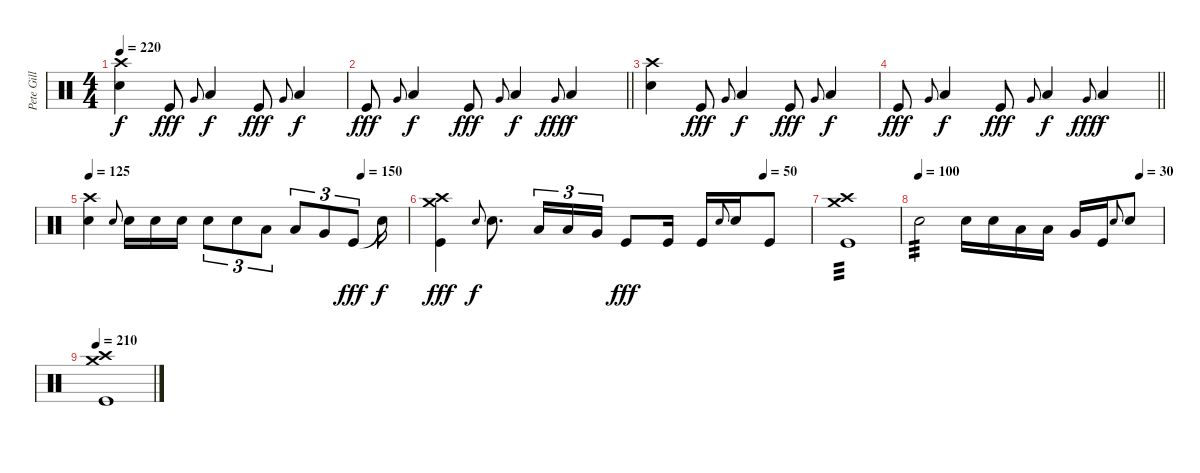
\track ("Pete Gill" "Pete Gill") {instrument percussion}
\staff {score}
\articulation defaults
\ts (4 4)
\tempo 220
\clef neutral
\ks c
("Crash high (hit)" "Electric Snare (hit)").4{dy f} "Kick (hit)".8{dy fff} "Very Low Tom (hit)".8{gr onbeat} "Low Tom (hit)".4{dy f} "Kick (hit)".8{dy fff} "Very Low Tom (hit)".8{gr onbeat} "Low Tom (hit)".4{dy f} |
\barLineRight lightlight "Kick (hit)".8{dy fff} "Very Low Tom (hit)".8{gr onbeat} "Low Tom (hit)".4{dy f} "Kick (hit)".8{dy fff} "Very Low Tom (hit)".8{gr onbeat} "Low Tom (hit)".4{dy f} "Very Low Tom (hit)".8{gr onbeat dy fff} "Low Tom (hit)".4{dy f}
|
("Crash high (hit)" "Electric Snare (hit)").4 "Kick (hit)".8{dy fff} "Very Low Tom (hit)".8{gr onbeat} "Low Tom (hit)".4{dy f} "Kick (hit)".8{dy fff} "Very Low Tom (hit)".8{gr onbeat} "Low Tom (hit)".4{dy f} |
\barLineRight lightlight "Kick (hit)".8{dy fff} "Very Low Tom (hit)".8{gr onbeat} "Low Tom (hit)".4{dy f} "Kick (hit)".8{dy fff} "Very Low Tom (hit)".8{gr onbeat} "Low Tom (hit)".4{dy f} "Very Low Tom (hit)".8{gr onbeat dy fff} "Low Tom (hit)".4{dy f}
|
\tempo 125
\tempo (150 0.8541666666666666)
("Crash high (hit)" "Electric Snare (hit)").4 "Electric Snare (hit)".8{gr onbeat} "Electric Snare (hit)".16 "Electric Snare (hit)".16 "Electric Snare (hit)".16 "Electric Snare (hit)".8{tu (3 2)} "Electric Snare (hit)".8{tu (3 2)} "Low Tom (hit)".8{tu (3 2)} "Low Tom (hit)".8{tu (3 2)} "Very Low Tom (hit)".8{tu (3 2)} "Kick (hit)".8{tu (3 2) dy fff} "Snare (hit)"{t}.16{dy f} |
\tempo (50 0.875)
("Crash high (hit)" "Crash medium (hit)" "Kick (hit)").4{dy fff} "Electric Snare (hit)".8{gr onbeat dy f} "Electric Snare (hit)".8{d} "Low Tom (hit)".16{tu (3 2)} "Low Tom (hit)".16{tu (3 2)} "Very Low Tom (hit)".16{tu (3 2)} "Kick (hit)".8{dy fff} "Kick (hit)".16 "Kick (hit)".16 "Electric Snare (hit)".8{gr onbeat} "Electric Snare (hit)".16 "Kick (hit)".8 |
("Crash high (hit)" "Crash medium (hit)" "Kick (hit)").1{tp 3} |
\tempo 100
\tempo (30 0.90625)
"Electric Snare (hit)".2{tp 3} "Electric Snare (hit)".16 "Electric Snare (hit)".16 "Low Tom (hit)".16 "Low Tom (hit)".16 "Very Low Tom (hit)".16 "Kick (hit)".16 "Electric Snare (hit)"{h}.8{gr onbeat} "Electric Snare (hit)".8 |
\tempo 210
("Crash high (hit)" "Crash medium (hit)" "Kick (hit)").1
